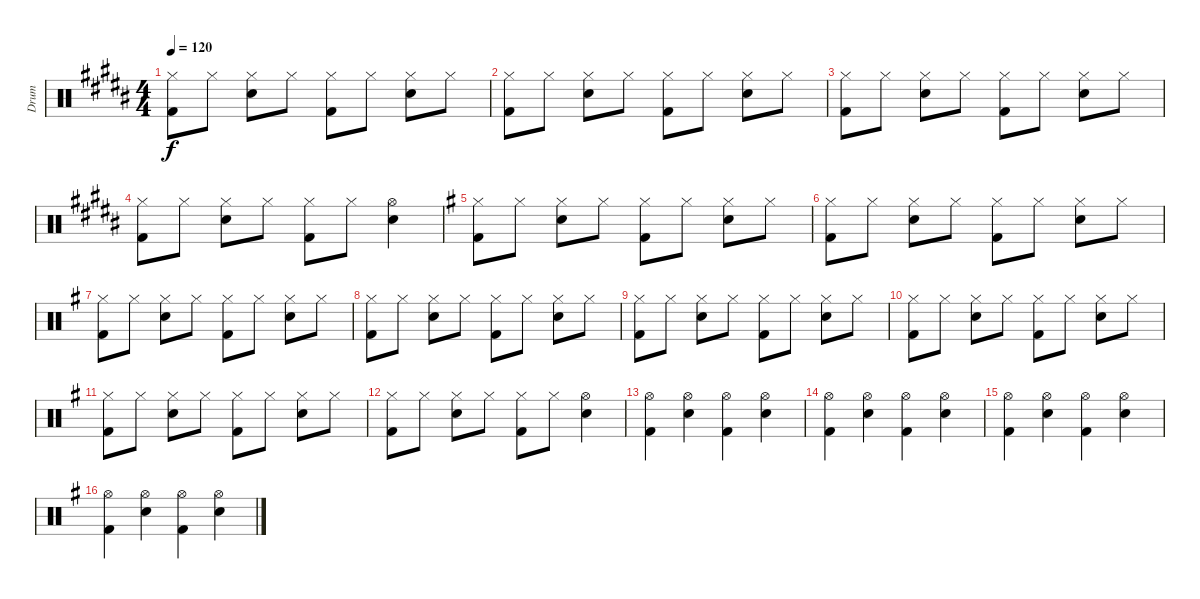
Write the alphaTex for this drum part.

\track ("Drum" "Drum") {instrument percussion}
\staff {score}
\articulation defaults
\ts (4 4)
\tempo 120
\clef neutral
\ks b
("Hi-Hat (closed)" "Kick (hit) 2").8{dy f} "Hi-Hat (closed)".8 ("Hi-Hat (closed)" "Electric Snare (hit)").8 "Hi-Hat (closed)".8 ("Hi-Hat (closed)" "Kick (hit) 2").8 "Hi-Hat (closed)".8 ("Hi-Hat (closed)" "Electric Snare (hit)").8 "Hi-Hat (closed)".8 |
("Hi-Hat (closed)" "Kick (hit) 2").8 "Hi-Hat (closed)".8 ("Hi-Hat (closed)" "Electric Snare (hit)").8 "Hi-Hat (closed)".8 ("Hi-Hat (closed)" "Kick (hit) 2").8 "Hi-Hat (closed)".8 ("Hi-Hat (closed)" "Electric Snare (hit)").8 "Hi-Hat (closed)".8 |
("Hi-Hat (closed)" "Kick (hit) 2").8 "Hi-Hat (closed)".8 ("Hi-Hat (closed)" "Electric Snare (hit)").8 "Hi-Hat (closed)".8 ("Hi-Hat (closed)" "Kick (hit) 2").8 "Hi-Hat (closed)".8 ("Hi-Hat (closed)" "Electric Snare (hit)").8 "Hi-Hat (closed)".8 |
("Hi-Hat (closed)" "Kick (hit) 2").8 "Hi-Hat (closed)".8 ("Hi-Hat (closed)" "Electric Snare (hit)").8 "Hi-Hat (closed)".8 ("Hi-Hat (closed)" "Kick (hit) 2").8 "Hi-Hat (closed)".8 ("Hi-Hat (open)" "Electric Snare (hit)").4 |
\ks g
("Hi-Hat (closed)" "Kick (hit) 2").8 "Hi-Hat (closed)".8 ("Hi-Hat (closed)" "Electric Snare (hit)").8 "Hi-Hat (closed)".8 ("Hi-Hat (closed)" "Kick (hit) 2").8 "Hi-Hat (closed)".8 ("Hi-Hat (closed)" "Electric Snare (hit)").8 "Hi-Hat (closed)".8 |
("Hi-Hat (closed)" "Kick (hit) 2").8 "Hi-Hat (closed)".8 ("Hi-Hat (closed)" "Electric Snare (hit)").8 "Hi-Hat (closed)".8 ("Hi-Hat (closed)" "Kick (hit) 2").8 "Hi-Hat (closed)".8 ("Hi-Hat (closed)" "Electric Snare (hit)").8 "Hi-Hat (closed)".8 |
("Hi-Hat (closed)" "Kick (hit) 2").8 "Hi-Hat (closed)".8 ("Hi-Hat (closed)" "Electric Snare (hit)").8 "Hi-Hat (closed)".8 ("Hi-Hat (closed)" "Kick (hit) 2").8 "Hi-Hat (closed)".8 ("Hi-Hat (closed)" "Electric Snare (hit)").8 "Hi-Hat (closed)".8 |
("Hi-Hat (closed)" "Kick (hit) 2").8 "Hi-Hat (closed)".8 ("Hi-Hat (closed)" "Electric Snare (hit)").8 "Hi-Hat (closed)".8 ("Hi-Hat (closed)" "Kick (hit) 2").8 "Hi-Hat (closed)".8 ("Hi-Hat (closed)" "Electric Snare (hit)").8 "Hi-Hat (closed)".8 |
("Hi-Hat (closed)" "Kick (hit) 2").8 "Hi-Hat (closed)".8 ("Hi-Hat (closed)" "Electric Snare (hit)").8 "Hi-Hat (closed)".8 ("Hi-Hat (closed)" "Kick (hit) 2").8 "Hi-Hat (closed)".8 ("Hi-Hat (closed)" "Electric Snare (hit)").8 "Hi-Hat (closed)".8 |
("Hi-Hat (closed)" "Kick (hit) 2").8 "Hi-Hat (closed)".8 ("Hi-Hat (closed)" "Electric Snare (hit)").8 "Hi-Hat (closed)".8 ("Hi-Hat (closed)" "Kick (hit) 2").8 "Hi-Hat (closed)".8 ("Hi-Hat (closed)" "Electric Snare (hit)").8 "Hi-Hat (closed)".8 |
("Hi-Hat (closed)" "Kick (hit) 2").8 "Hi-Hat (closed)".8 ("Hi-Hat (closed)" "Electric Snare (hit)").8 "Hi-Hat (closed)".8 ("Hi-Hat (closed)" "Kick (hit) 2").8 "Hi-Hat (closed)".8 ("Hi-Hat (closed)" "Electric Snare (hit)").8 "Hi-Hat (closed)".8 |
("Hi-Hat (closed)" "Kick (hit) 2").8 "Hi-Hat (closed)".8 ("Hi-Hat (closed)" "Electric Snare (hit)").8 "Hi-Hat (closed)".8 ("Hi-Hat (closed)" "Kick (hit) 2").8 "Hi-Hat (closed)".8 ("Hi-Hat (open)" "Electric Snare (hit)").4 |
("Hi-Hat (open)" "Kick (hit) 2").4 ("Hi-Hat (open)" "Electric Snare (hit)").4 ("Hi-Hat (open)" "Kick (hit) 2").4 ("Hi-Hat (open)" "Electric Snare (hit)").4 |
("Hi-Hat (open)" "Kick (hit) 2").4 ("Hi-Hat (open)" "Electric Snare (hit)").4 ("Hi-Hat (open)" "Kick (hit) 2").4 ("Hi-Hat (open)" "Electric Snare (hit)").4 |
("Hi-Hat (open)" "Kick (hit) 2").4 ("Hi-Hat (open)" "Electric Snare (hit)").4 ("Hi-Hat (open)" "Kick (hit) 2").4 ("Hi-Hat (open)" "Electric Snare (hit)").4 |
("Hi-Hat (open)" "Kick (hit) 2").4 ("Hi-Hat (open)" "Electric Snare (hit)").4 ("Hi-Hat (open)" "Kick (hit) 2").4 ("Hi-Hat (open)" "Electric Snare (hit)").4
